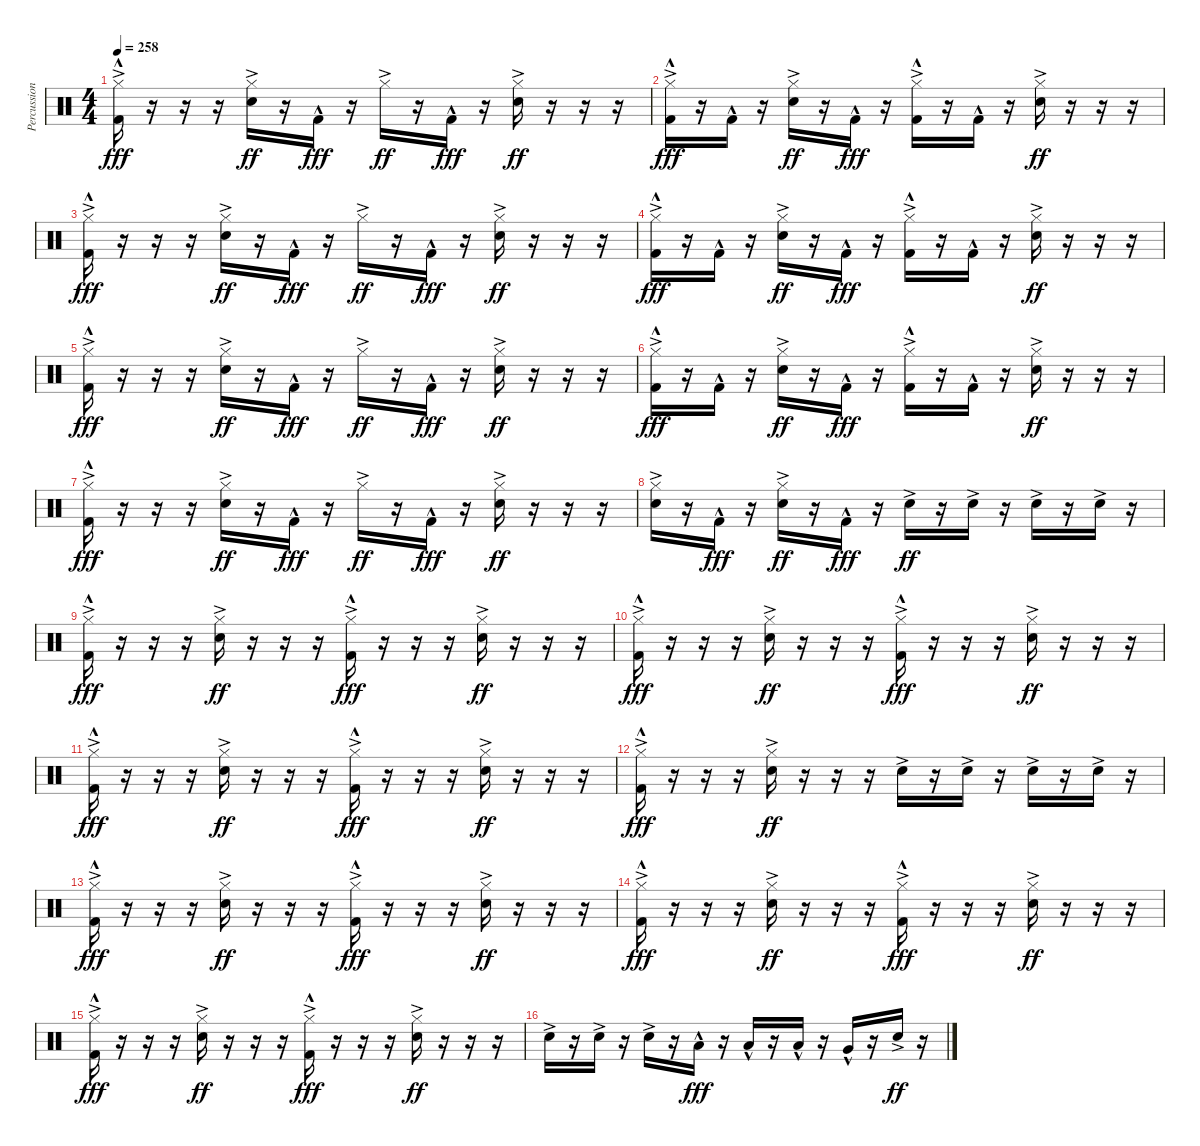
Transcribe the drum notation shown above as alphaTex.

\track ("Percussion" "Percussion") {instrument percussion bank 2}
\staff {score}
\articulation defaults
\ts (4 4)
\tempo 258
\clef neutral
\ks c
("Hi-Hat (closed)"{ac} "Kick (hit) 2"{hac}).16{dy fff} r.16 r.16 r.16 ("Hi-Hat (closed)"{ac} "Snare (hit) 2"{ac}).16{dy ff} r.16 "Kick (hit) 2"{hac}.16{dy fff} r.16 "Hi-Hat (closed)"{ac}.16{dy ff} r.16 "Kick (hit) 2"{hac}.16{dy fff} r.16 ("Hi-Hat (closed)"{ac} "Snare (hit) 2"{ac}).16{dy ff} r.16 r.16 r.16 |
("Hi-Hat (closed)"{ac} "Kick (hit) 2"{hac}).16{dy fff} r.16 "Kick (hit) 2"{hac}.16 r.16 ("Hi-Hat (closed)"{ac} "Snare (hit) 2"{ac}).16{dy ff} r.16 "Kick (hit) 2"{hac}.16{dy fff} r.16 ("Hi-Hat (closed)"{ac} "Kick (hit) 2"{hac}).16 r.16 "Kick (hit) 2"{hac}.16 r.16 ("Hi-Hat (closed)"{ac} "Snare (hit) 2"{ac}).16{dy ff} r.16 r.16 r.16 |
("Hi-Hat (closed)"{ac} "Kick (hit) 2"{hac}).16{dy fff} r.16 r.16 r.16 ("Hi-Hat (closed)"{ac} "Snare (hit) 2"{ac}).16{dy ff} r.16 "Kick (hit) 2"{hac}.16{dy fff} r.16 "Hi-Hat (closed)"{ac}.16{dy ff} r.16 "Kick (hit) 2"{hac}.16{dy fff} r.16 ("Hi-Hat (closed)"{ac} "Snare (hit) 2"{ac}).16{dy ff} r.16 r.16 r.16 |
("Hi-Hat (closed)"{ac} "Kick (hit) 2"{hac}).16{dy fff} r.16 "Kick (hit) 2"{hac}.16 r.16 ("Hi-Hat (closed)"{ac} "Snare (hit) 2"{ac}).16{dy ff} r.16 "Kick (hit) 2"{hac}.16{dy fff} r.16 ("Hi-Hat (closed)"{ac} "Kick (hit) 2"{hac}).16 r.16 "Kick (hit) 2"{hac}.16 r.16 ("Hi-Hat (closed)"{ac} "Snare (hit) 2"{ac}).16{dy ff} r.16 r.16 r.16 |
("Hi-Hat (closed)"{ac} "Kick (hit) 2"{hac}).16{dy fff} r.16 r.16 r.16 ("Hi-Hat (closed)"{ac} "Snare (hit) 2"{ac}).16{dy ff} r.16 "Kick (hit) 2"{hac}.16{dy fff} r.16 "Hi-Hat (closed)"{ac}.16{dy ff} r.16 "Kick (hit) 2"{hac}.16{dy fff} r.16 ("Hi-Hat (closed)"{ac} "Snare (hit) 2"{ac}).16{dy ff} r.16 r.16 r.16 |
("Hi-Hat (closed)"{ac} "Kick (hit) 2"{hac}).16{dy fff} r.16 "Kick (hit) 2"{hac}.16 r.16 ("Hi-Hat (closed)"{ac} "Snare (hit) 2"{ac}).16{dy ff} r.16 "Kick (hit) 2"{hac}.16{dy fff} r.16 ("Hi-Hat (closed)"{ac} "Kick (hit) 2"{hac}).16 r.16 "Kick (hit) 2"{hac}.16 r.16 ("Hi-Hat (closed)"{ac} "Snare (hit) 2"{ac}).16{dy ff} r.16 r.16 r.16 |
("Hi-Hat (closed)"{ac} "Kick (hit) 2"{hac}).16{dy fff} r.16 r.16 r.16 ("Hi-Hat (closed)"{ac} "Snare (hit) 2"{ac}).16{dy ff} r.16 "Kick (hit) 2"{hac}.16{dy fff} r.16 "Hi-Hat (closed)"{ac}.16{dy ff} r.16 "Kick (hit) 2"{hac}.16{dy fff} r.16 ("Hi-Hat (closed)"{ac} "Snare (hit) 2"{ac}).16{dy ff} r.16 r.16 r.16 |
("Hi-Hat (closed)"{ac} "Snare (hit) 2"{ac}).16 r.16 "Kick (hit) 2"{hac}.16{dy fff} r.16 ("Hi-Hat (closed)"{ac} "Snare (hit) 2"{ac}).16{dy ff} r.16 "Kick (hit) 2"{hac}.16{dy fff} r.16 "Snare (hit) 2"{ac}.16{dy ff} r.16 "Snare (hit) 2"{ac}.16 r.16 "Snare (hit) 2"{ac}.16 r.16 "Snare (hit) 2"{ac}.16 r.16 |
("Hi-Hat (closed)"{ac} "Kick (hit) 2"{hac}).16{dy fff} r.16 r.16 r.16 ("Hi-Hat (closed)"{ac} "Snare (hit) 2"{ac}).16{dy ff} r.16 r.16 r.16 ("Hi-Hat (closed)"{ac} "Kick (hit) 2"{hac}).16{dy fff} r.16 r.16 r.16 ("Hi-Hat (closed)"{ac} "Snare (hit) 2"{ac}).16{dy ff} r.16 r.16 r.16 |
("Hi-Hat (closed)"{ac} "Kick (hit) 2"{hac}).16{dy fff} r.16 r.16 r.16 ("Hi-Hat (closed)"{ac} "Snare (hit) 2"{ac}).16{dy ff} r.16 r.16 r.16 ("Hi-Hat (closed)"{ac} "Kick (hit) 2"{hac}).16{dy fff} r.16 r.16 r.16 ("Hi-Hat (closed)"{ac} "Snare (hit) 2"{ac}).16{dy ff} r.16 r.16 r.16 |
("Hi-Hat (closed)"{ac} "Kick (hit) 2"{hac}).16{dy fff} r.16 r.16 r.16 ("Hi-Hat (closed)"{ac} "Snare (hit) 2"{ac}).16{dy ff} r.16 r.16 r.16 ("Hi-Hat (closed)"{ac} "Kick (hit) 2"{hac}).16{dy fff} r.16 r.16 r.16 ("Hi-Hat (closed)"{ac} "Snare (hit) 2"{ac}).16{dy ff} r.16 r.16 r.16 |
("Hi-Hat (closed)"{ac} "Kick (hit) 2"{hac}).16{dy fff} r.16 r.16 r.16 ("Hi-Hat (closed)"{ac} "Snare (hit) 2"{ac}).16{dy ff} r.16 r.16 r.16 "Snare (hit) 2"{ac}.16 r.16 "Snare (hit) 2"{ac}.16 r.16 "Snare (hit) 2"{ac}.16 r.16 "Snare (hit) 2"{ac}.16 r.16 |
("Hi-Hat (closed)"{ac} "Kick (hit) 2"{hac}).16{dy fff} r.16 r.16 r.16 ("Hi-Hat (closed)"{ac} "Snare (hit) 2"{ac}).16{dy ff} r.16 r.16 r.16 ("Hi-Hat (closed)"{ac} "Kick (hit) 2"{hac}).16{dy fff} r.16 r.16 r.16 ("Hi-Hat (closed)"{ac} "Snare (hit) 2"{ac}).16{dy ff} r.16 r.16 r.16 |
("Hi-Hat (closed)"{ac} "Kick (hit) 2"{hac}).16{dy fff} r.16 r.16 r.16 ("Hi-Hat (closed)"{ac} "Snare (hit) 2"{ac}).16{dy ff} r.16 r.16 r.16 ("Hi-Hat (closed)"{ac} "Kick (hit) 2"{hac}).16{dy fff} r.16 r.16 r.16 ("Hi-Hat (closed)"{ac} "Snare (hit) 2"{ac}).16{dy ff} r.16 r.16 r.16 |
("Hi-Hat (closed)"{ac} "Kick (hit) 2"{hac}).16{dy fff} r.16 r.16 r.16 ("Hi-Hat (closed)"{ac} "Snare (hit) 2"{ac}).16{dy ff} r.16 r.16 r.16 ("Hi-Hat (closed)"{ac} "Kick (hit) 2"{hac}).16{dy fff} r.16 r.16 r.16 ("Hi-Hat (closed)"{ac} "Snare (hit) 2"{ac}).16{dy ff} r.16 r.16 r.16 |
"Snare (hit) 2"{ac}.16 r.16 "Snare (hit) 2"{ac}.16 r.16 "Snare (hit) 2"{ac}.16 r.16 "Low Tom (hit)"{hac}.16{dy fff} r.16 "Low Tom (hit)"{hac}.16 r.16 "Low Tom (hit)"{hac}.16 r.16 "Very Low Tom (hit)"{hac}.16 r.16 "Snare (hit) 2"{ac}.16{dy ff} r.16
